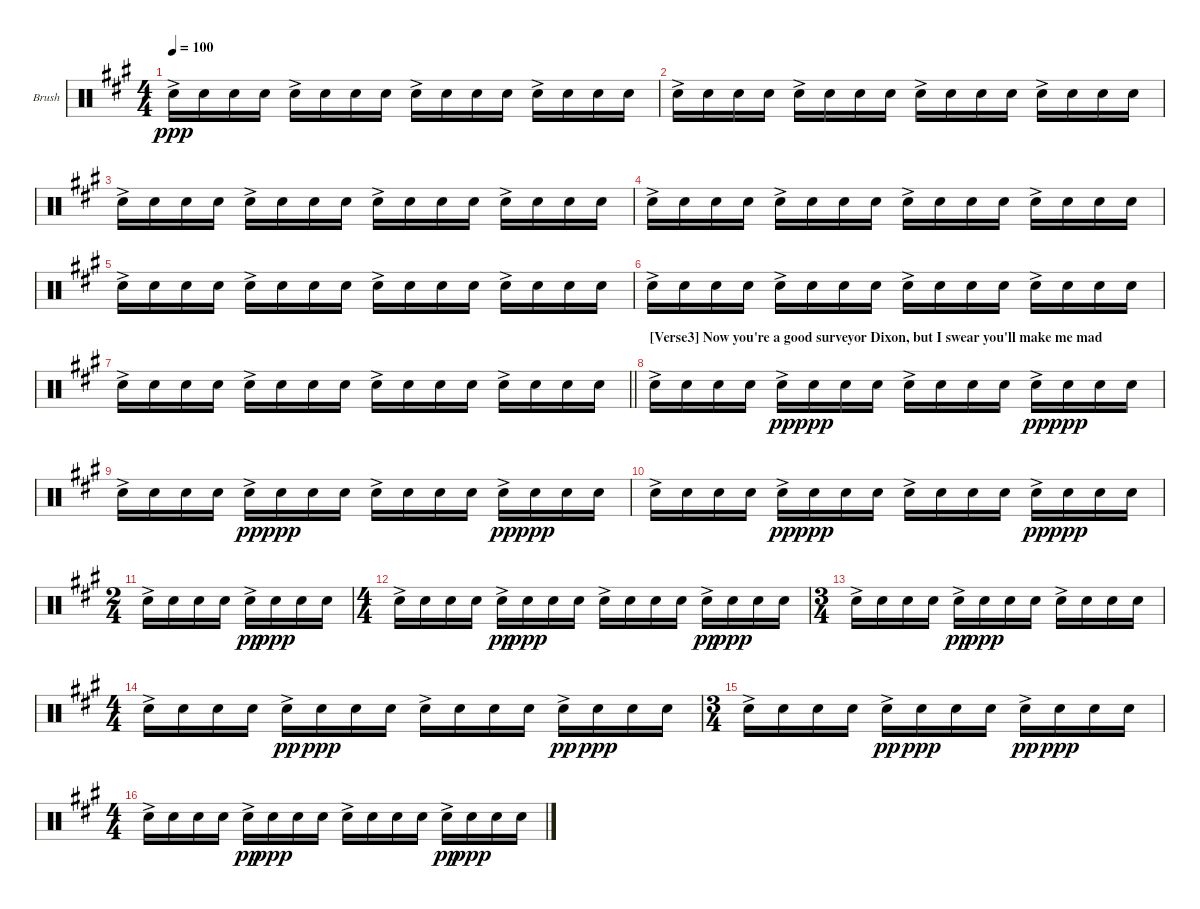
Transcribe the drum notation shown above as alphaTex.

\bracketExtendMode groupsimilarinstruments
\firstSystemTrackNameOrientation horizontal
\otherSystemsTrackNameOrientation horizontal
\track ("Brush Snare" "Brush") {instrument percussion}
\staff {score}
\articulation defaults
\ts (4 4)
\tempo 100
\clef neutral
\ks f#minor "Snare (hit) 2"{ac}.16{dy ppp} "Snare (hit) 2".16 "Snare (hit) 2".16 "Snare (hit) 2".16 "Snare (hit) 2"{ac}.16 "Snare (hit) 2".16 "Snare (hit) 2".16 "Snare (hit) 2".16 "Snare (hit) 2"{ac}.16 "Snare (hit) 2".16 "Snare (hit) 2".16 "Snare (hit) 2".16 "Snare (hit) 2"{ac}.16 "Snare (hit) 2".16 "Snare (hit) 2".16 "Snare (hit) 2".16
|
"Snare (hit) 2"{ac}.16 "Snare (hit) 2".16 "Snare (hit) 2".16 "Snare (hit) 2".16 "Snare (hit) 2"{ac}.16 "Snare (hit) 2".16 "Snare (hit) 2".16 "Snare (hit) 2".16 "Snare (hit) 2"{ac}.16 "Snare (hit) 2".16 "Snare (hit) 2".16 "Snare (hit) 2".16 "Snare (hit) 2"{ac}.16 "Snare (hit) 2".16 "Snare (hit) 2".16 "Snare (hit) 2".16 |
"Snare (hit) 2"{ac}.16 "Snare (hit) 2".16 "Snare (hit) 2".16 "Snare (hit) 2".16 "Snare (hit) 2"{ac}.16 "Snare (hit) 2".16 "Snare (hit) 2".16 "Snare (hit) 2".16 "Snare (hit) 2"{ac}.16 "Snare (hit) 2".16 "Snare (hit) 2".16 "Snare (hit) 2".16 "Snare (hit) 2"{ac}.16 "Snare (hit) 2".16 "Snare (hit) 2".16 "Snare (hit) 2".16 |
"Snare (hit) 2"{ac}.16 "Snare (hit) 2".16 "Snare (hit) 2".16 "Snare (hit) 2".16 "Snare (hit) 2"{ac}.16 "Snare (hit) 2".16 "Snare (hit) 2".16 "Snare (hit) 2".16 "Snare (hit) 2"{ac}.16 "Snare (hit) 2".16 "Snare (hit) 2".16 "Snare (hit) 2".16 "Snare (hit) 2"{ac}.16 "Snare (hit) 2".16 "Snare (hit) 2".16 "Snare (hit) 2".16 |
"Snare (hit) 2"{ac}.16 "Snare (hit) 2".16 "Snare (hit) 2".16 "Snare (hit) 2".16 "Snare (hit) 2"{ac}.16 "Snare (hit) 2".16 "Snare (hit) 2".16 "Snare (hit) 2".16 "Snare (hit) 2"{ac}.16 "Snare (hit) 2".16 "Snare (hit) 2".16 "Snare (hit) 2".16 "Snare (hit) 2"{ac}.16 "Snare (hit) 2".16 "Snare (hit) 2".16 "Snare (hit) 2".16 |
"Snare (hit) 2"{ac}.16 "Snare (hit) 2".16 "Snare (hit) 2".16 "Snare (hit) 2".16 "Snare (hit) 2"{ac}.16 "Snare (hit) 2".16 "Snare (hit) 2".16 "Snare (hit) 2".16 "Snare (hit) 2"{ac}.16 "Snare (hit) 2".16 "Snare (hit) 2".16 "Snare (hit) 2".16 "Snare (hit) 2"{ac}.16 "Snare (hit) 2".16 "Snare (hit) 2".16 "Snare (hit) 2".16 |
\barLineRight lightlight "Snare (hit) 2"{ac}.16 "Snare (hit) 2".16 "Snare (hit) 2".16 "Snare (hit) 2".16 "Snare (hit) 2"{ac}.16 "Snare (hit) 2".16 "Snare (hit) 2".16 "Snare (hit) 2".16 "Snare (hit) 2"{ac}.16 "Snare (hit) 2".16 "Snare (hit) 2".16 "Snare (hit) 2".16 "Snare (hit) 2"{ac}.16 "Snare (hit) 2".16 "Snare (hit) 2".16 "Snare (hit) 2".16
|
\section ("" "[Verse3] Now you're a good surveyor Dixon, but I swear you'll make me mad")
"Snare (hit) 2"{ac}.16 "Snare (hit) 2".16 "Snare (hit) 2".16 "Snare (hit) 2".16 "Snare (hit) 2"{ac}.16{dy pp} "Snare (hit) 2".16{dy ppp} "Snare (hit) 2".16 "Snare (hit) 2".16 "Snare (hit) 2"{ac}.16 "Snare (hit) 2".16 "Snare (hit) 2".16 "Snare (hit) 2".16 "Snare (hit) 2"{ac}.16{dy pp} "Snare (hit) 2".16{dy ppp} "Snare (hit) 2".16 "Snare (hit) 2".16 |
"Snare (hit) 2"{ac}.16 "Snare (hit) 2".16 "Snare (hit) 2".16 "Snare (hit) 2".16 "Snare (hit) 2"{ac}.16{dy pp} "Snare (hit) 2".16{dy ppp} "Snare (hit) 2".16 "Snare (hit) 2".16 "Snare (hit) 2"{ac}.16 "Snare (hit) 2".16 "Snare (hit) 2".16 "Snare (hit) 2".16 "Snare (hit) 2"{ac}.16{dy pp} "Snare (hit) 2".16{dy ppp} "Snare (hit) 2".16 "Snare (hit) 2".16 |
"Snare (hit) 2"{ac}.16 "Snare (hit) 2".16 "Snare (hit) 2".16 "Snare (hit) 2".16 "Snare (hit) 2"{ac}.16{dy pp} "Snare (hit) 2".16{dy ppp} "Snare (hit) 2".16 "Snare (hit) 2".16 "Snare (hit) 2"{ac}.16 "Snare (hit) 2".16 "Snare (hit) 2".16 "Snare (hit) 2".16 "Snare (hit) 2"{ac}.16{dy pp} "Snare (hit) 2".16{dy ppp} "Snare (hit) 2".16 "Snare (hit) 2".16 |
\ts (2 4)
"Snare (hit) 2"{ac}.16 "Snare (hit) 2".16 "Snare (hit) 2".16 "Snare (hit) 2".16 "Snare (hit) 2"{ac}.16{dy pp} "Snare (hit) 2".16{dy ppp} "Snare (hit) 2".16 "Snare (hit) 2".16 |
\ts (4 4)
"Snare (hit) 2"{ac}.16 "Snare (hit) 2".16 "Snare (hit) 2".16 "Snare (hit) 2".16 "Snare (hit) 2"{ac}.16{dy pp} "Snare (hit) 2".16{dy ppp} "Snare (hit) 2".16 "Snare (hit) 2".16 "Snare (hit) 2"{ac}.16 "Snare (hit) 2".16 "Snare (hit) 2".16 "Snare (hit) 2".16 "Snare (hit) 2"{ac}.16{dy pp} "Snare (hit) 2".16{dy ppp} "Snare (hit) 2".16 "Snare (hit) 2".16 |
\ts (3 4)
"Snare (hit) 2"{ac}.16 "Snare (hit) 2".16 "Snare (hit) 2".16 "Snare (hit) 2".16 "Snare (hit) 2"{ac}.16{dy pp} "Snare (hit) 2".16{dy ppp} "Snare (hit) 2".16 "Snare (hit) 2".16 "Snare (hit) 2"{ac}.16 "Snare (hit) 2".16 "Snare (hit) 2".16 "Snare (hit) 2".16 |
\ts (4 4)
"Snare (hit) 2"{ac}.16 "Snare (hit) 2".16 "Snare (hit) 2".16 "Snare (hit) 2".16 "Snare (hit) 2"{ac}.16{dy pp} "Snare (hit) 2".16{dy ppp} "Snare (hit) 2".16 "Snare (hit) 2".16 "Snare (hit) 2"{ac}.16 "Snare (hit) 2".16 "Snare (hit) 2".16 "Snare (hit) 2".16 "Snare (hit) 2"{ac}.16{dy pp} "Snare (hit) 2".16{dy ppp} "Snare (hit) 2".16 "Snare (hit) 2".16 |
\ts (3 4)
"Snare (hit) 2"{ac}.16 "Snare (hit) 2".16 "Snare (hit) 2".16 "Snare (hit) 2".16 "Snare (hit) 2"{ac}.16{dy pp} "Snare (hit) 2".16{dy ppp} "Snare (hit) 2".16 "Snare (hit) 2".16 "Snare (hit) 2"{ac}.16{dy pp} "Snare (hit) 2".16{dy ppp} "Snare (hit) 2".16 "Snare (hit) 2".16 |
\ts (4 4)
"Snare (hit) 2"{ac}.16 "Snare (hit) 2".16 "Snare (hit) 2".16 "Snare (hit) 2".16 "Snare (hit) 2"{ac}.16{dy pp} "Snare (hit) 2".16{dy ppp} "Snare (hit) 2".16 "Snare (hit) 2".16 "Snare (hit) 2"{ac}.16 "Snare (hit) 2".16 "Snare (hit) 2".16 "Snare (hit) 2".16 "Snare (hit) 2"{ac}.16{dy pp} "Snare (hit) 2".16{dy ppp} "Snare (hit) 2".16 "Snare (hit) 2".16
